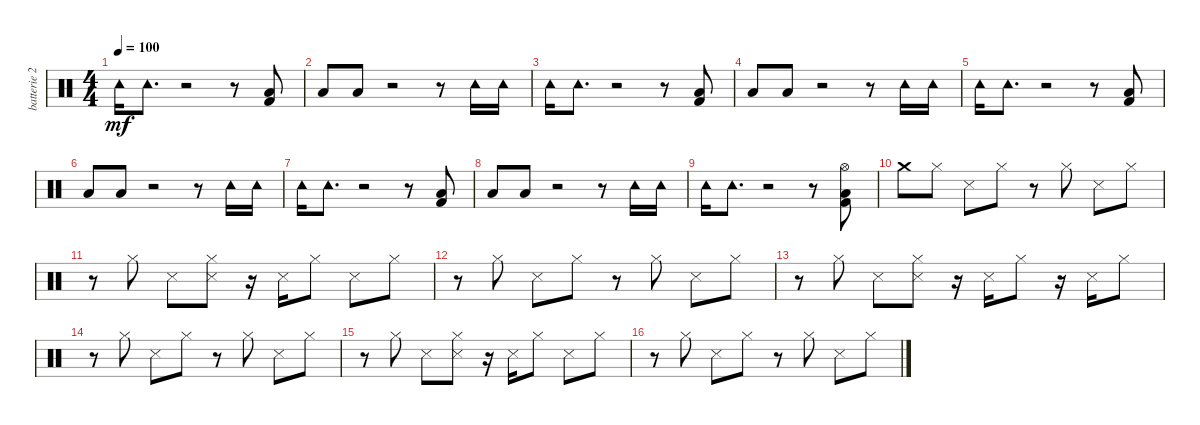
\track ("batterie 2" "batterie 2") {instrument percussion}
\staff {score}
\articulation defaults
\ts (4 4)
\tempo 100
\clef neutral
\ks c "Tambourine (hit)".16{dy mf} "Tambourine (hit)".8{d}
r.2 r.8 ("Kick (hit) 2" "Low Floor Tom (hit)").8 |
"Low Floor Tom (hit)".8 "Low Floor Tom (hit)".8 r.2 r.8 "Tambourine (hit)".16 "Tambourine (hit)".16 |
"Tambourine (hit)".16 "Tambourine (hit)".8{d} r.2 r.8 ("Kick (hit) 2" "Low Floor Tom (hit)").8 |
"Low Floor Tom (hit)".8 "Low Floor Tom (hit)".8 r.2 r.8 "Tambourine (hit)".16 "Tambourine (hit)".16 |
"Tambourine (hit)".16 "Tambourine (hit)".8{d} r.2 r.8 ("Kick (hit) 2" "Low Floor Tom (hit)").8 |
"Low Floor Tom (hit)".8 "Low Floor Tom (hit)".8 r.2 r.8 "Tambourine (hit)".16 "Tambourine (hit)".16 |
"Tambourine (hit)".16 "Tambourine (hit)".8{d} r.2 r.8 ("Kick (hit) 2" "Low Floor Tom (hit)").8 |
"Low Floor Tom (hit)".8 "Low Floor Tom (hit)".8 r.2 r.8 "Tambourine (hit)".16 "Tambourine (hit)".16 |
"Tambourine (hit)".16 "Tambourine (hit)".8{d} r.2 r.8 ("Kick (hit) 2" "Low Floor Tom (hit)" "Hi-Hat (open)").8 |
"Crash medium (hit)".8 "Hi-Hat (closed)".8 "Snare (side stick) 3".8 "Hi-Hat (closed)".8 r.8 "Hi-Hat (closed)".8 "Snare (side stick) 3".8 "Hi-Hat (closed)".8 |
r.8 "Hi-Hat (closed)".8 "Snare (side stick) 3".8 ("Snare (side stick) 3" "Hi-Hat (closed)").8 r.16 "Snare (side stick) 3".16 "Hi-Hat (closed)".8 "Snare (side stick) 3".8 "Hi-Hat (closed)".8 |
r.8 "Hi-Hat (closed)".8 "Snare (side stick) 3".8 "Hi-Hat (closed)".8 r.8 "Hi-Hat (closed)".8 "Snare (side stick) 3".8 "Hi-Hat (closed)".8 |
r.8 "Hi-Hat (closed)".8 "Snare (side stick) 3".8 ("Snare (side stick) 3" "Hi-Hat (closed)").8 r.16 "Snare (side stick) 3".16 "Hi-Hat (closed)".8 r.16 "Snare (side stick) 3".16 "Hi-Hat (closed)".8 |
r.8 "Hi-Hat (closed)".8 "Snare (side stick) 3".8 "Hi-Hat (closed)".8 r.8 "Hi-Hat (closed)".8 "Snare (side stick) 3".8 "Hi-Hat (closed)".8 |
r.8 "Hi-Hat (closed)".8 "Snare (side stick) 3".8 ("Snare (side stick) 3" "Hi-Hat (closed)").8 r.16 "Snare (side stick) 3".16 "Hi-Hat (closed)".8 "Snare (side stick) 3".8 "Hi-Hat (closed)".8 |
r.8 "Hi-Hat (closed)".8 "Snare (side stick) 3".8 "Hi-Hat (closed)".8 r.8 "Hi-Hat (closed)".8 "Snare (side stick) 3".8 "Hi-Hat (closed)".8
